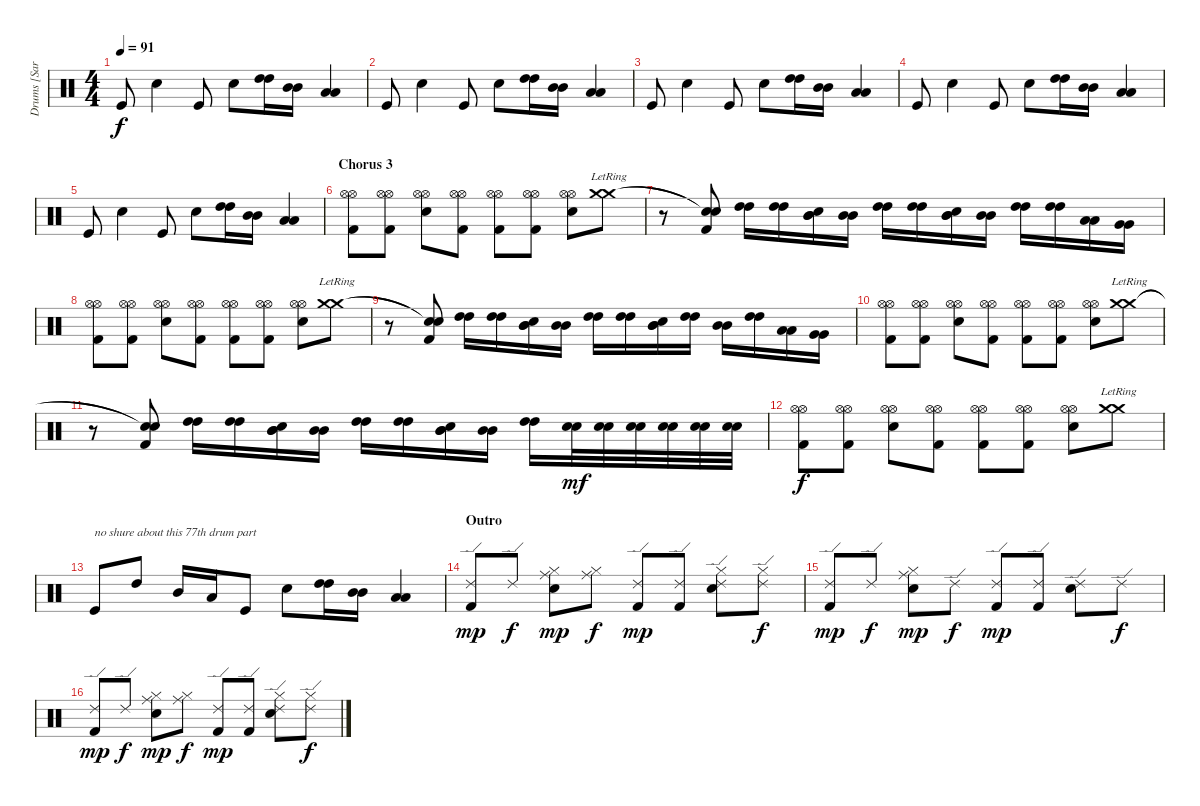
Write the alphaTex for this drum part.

\track ("Drums [Sara Lee Lucas]" "Drums [Sar") {instrument percussion}
\staff {score}
\articulation defaults
\ts (4 4)
\tempo 91
\clef neutral
\ks c "Kick (hit)".8{dy f} "Snare (hit) 2".4 "Kick (hit)".8 "Snare (hit) 2".8
("High Tom (hit)" "High Tom (hit)").16 ("Mid Tom (hit)" "Mid Tom (hit)").16 ("Low Tom (hit)" "Low Tom (hit)").4 |
"Kick (hit)".8 "Snare (hit) 2".4 "Kick (hit)".8 "Snare (hit) 2".8 ("High Tom (hit)" "High Tom (hit)").16 ("Mid Tom (hit)" "Mid Tom (hit)").16 ("Low Tom (hit)" "Low Tom (hit)").4 |
"Kick (hit)".8 "Snare (hit) 2".4 "Kick (hit)".8 "Snare (hit) 2".8 ("High Tom (hit)" "High Tom (hit)").16 ("Mid Tom (hit)" "Mid Tom (hit)").16 ("Low Tom (hit)" "Low Tom (hit)").4 |
"Kick (hit)".8 "Snare (hit) 2".4 "Kick (hit)".8 "Snare (hit) 2".8 ("High Tom (hit)" "High Tom (hit)").16 ("Mid Tom (hit)" "Mid Tom (hit)").16 ("Low Tom (hit)" "Low Tom (hit)").4 |
"Kick (hit)".8 "Snare (hit) 2".4 "Kick (hit)".8 "Snare (hit) 2".8 ("High Tom (hit)" "High Tom (hit)").16 ("Mid Tom (hit)" "Mid Tom (hit)").16 ("Low Tom (hit)" "Low Tom (hit)").4 |
\section ("" "Chorus 3")
("Hi-Hat (open)" "Hi-Hat (open)" "Kick (hit) 2").8 ("Hi-Hat (open)" "Hi-Hat (open)" "Kick (hit) 2").8 ("Hi-Hat (open)" "Hi-Hat (open)" "Snare (hit) 2").8 ("Hi-Hat (open)" "Hi-Hat (open)" "Kick (hit) 2").8 ("Hi-Hat (open)" "Hi-Hat (open)" "Kick (hit) 2").8 ("Hi-Hat (open)" "Hi-Hat (open)" "Kick (hit) 2").8 ("Hi-Hat (open)" "Hi-Hat (open)" "Snare (hit) 2").8 ("Crash medium (hit)"{lr} "Crash medium (hit)"{lr}).8 |
r.8 ("Snare (hit)"{t} "Snare (hit)"{t} "Kick (hit) 2").8 ("High Tom (hit)" "High Tom (hit)").16 ("High Tom (hit)" "High Tom (hit)").16 ("Mid Tom (hit)" "Mid Tom (hit)" "Snare (hit) 2").16 ("Mid Tom (hit)" "Mid Tom (hit)").16 ("High Tom (hit)" "High Tom (hit)").16 ("High Tom (hit)" "High Tom (hit)").16 ("Mid Tom (hit)" "Mid Tom (hit)" "Snare (hit) 2").16 ("Mid Tom (hit)" "Mid Tom (hit)").16 ("High Tom (hit)" "High Tom (hit)").16 ("High Tom (hit)" "High Tom (hit)").16 ("Low Tom (hit)" "Low Tom (hit)").16 ("Very Low Tom (hit)" "Very Low Tom (hit)").16 |
("Hi-Hat (open)" "Hi-Hat (open)" "Kick (hit) 2").8 ("Hi-Hat (open)" "Hi-Hat (open)" "Kick (hit) 2").8 ("Hi-Hat (open)" "Hi-Hat (open)" "Snare (hit) 2").8 ("Hi-Hat (open)" "Hi-Hat (open)" "Kick (hit) 2").8 ("Hi-Hat (open)" "Hi-Hat (open)" "Kick (hit) 2").8 ("Hi-Hat (open)" "Hi-Hat (open)" "Kick (hit) 2").8 ("Hi-Hat (open)" "Hi-Hat (open)" "Snare (hit) 2").8 ("Crash medium (hit)"{lr} "Crash medium (hit)"{lr}).8 |
r.8 ("Snare (hit)"{t} "Snare (hit)"{t} "Kick (hit) 2").8 ("High Tom (hit)" "High Tom (hit)").16 ("High Tom (hit)" "High Tom (hit)").16 ("Mid Tom (hit)" "Mid Tom (hit)" "Snare (hit) 2").16 ("Mid Tom (hit)" "Mid Tom (hit)").16 ("High Tom (hit)" "High Tom (hit)").16 ("High Tom (hit)" "High Tom (hit)").16 ("Mid Tom (hit)" "Mid Tom (hit)" "Snare (hit) 2").16 ("High Tom (hit)" "High Tom (hit)").16 ("Mid Tom (hit)" "Mid Tom (hit)").16 ("High Tom (hit)" "High Tom (hit)").16 ("Low Tom (hit)" "Low Tom (hit)").16 ("Very Low Tom (hit)" "Very Low Tom (hit)").16 |
("Hi-Hat (open)" "Hi-Hat (open)" "Kick (hit) 2").8 ("Hi-Hat (open)" "Hi-Hat (open)" "Kick (hit) 2").8 ("Hi-Hat (open)" "Hi-Hat (open)" "Snare (hit) 2").8 ("Hi-Hat (open)" "Hi-Hat (open)" "Kick (hit) 2").8 ("Hi-Hat (open)" "Hi-Hat (open)" "Kick (hit) 2").8 ("Hi-Hat (open)" "Hi-Hat (open)" "Kick (hit) 2").8 ("Hi-Hat (open)" "Hi-Hat (open)" "Snare (hit) 2").8 ("Crash medium (hit)"{lr} "Crash medium (hit)"{lr}).8 |
r.8 ("Snare (hit)"{t} "Snare (hit)"{t} "Kick (hit) 2").8 ("High Tom (hit)" "High Tom (hit)").16 ("High Tom (hit)" "High Tom (hit)").16 ("Mid Tom (hit)" "Mid Tom (hit)" "Snare (hit) 2").16 ("Mid Tom (hit)" "Mid Tom (hit)").16 ("High Tom (hit)" "High Tom (hit)").16 ("High Tom (hit)" "High Tom (hit)").16 ("Mid Tom (hit)" "Mid Tom (hit)" "Snare (hit) 2").16 ("Mid Tom (hit)" "Mid Tom (hit)").16 ("High Tom (hit)" "High Tom (hit)").16 ("Electric Snare (hit)" "Electric Snare (hit)").32{dy mf} ("Electric Snare (hit)" "Electric Snare (hit)").32 ("Electric Snare (hit)" "Electric Snare (hit)").32 ("Electric Snare (hit)" "Electric Snare (hit)").32 ("Electric Snare (hit)" "Electric Snare (hit)").32 ("Electric Snare (hit)" "Electric Snare (hit)").32 |
("Hi-Hat (open)" "Hi-Hat (open)" "Kick (hit) 2").8{dy f} ("Hi-Hat (open)" "Hi-Hat (open)" "Kick (hit) 2").8 ("Hi-Hat (open)" "Hi-Hat (open)" "Snare (hit) 2").8 ("Hi-Hat (open)" "Hi-Hat (open)" "Kick (hit) 2").8 ("Hi-Hat (open)" "Hi-Hat (open)" "Kick (hit) 2").8 ("Hi-Hat (open)" "Hi-Hat (open)" "Kick (hit) 2").8 ("Hi-Hat (open)" "Hi-Hat (open)" "Snare (hit) 2").8 ("Crash medium (hit)"{lr} "Crash medium (hit)"{lr}).8 |
"Kick (hit)".8{txt "no shure about this 77th drum part"} "High Tom (hit)".8 "Mid Tom (hit)".16 "Low Tom (hit)".16 "Kick (hit)".8 "Snare (hit) 2".8 ("High Tom (hit)" "High Tom (hit)").16 ("Mid Tom (hit)" "Mid Tom (hit)").16 ("Low Tom (hit)" "Low Tom (hit)").4 |
\section ("" "Outro")
("Ride (edge) 2" "Kick (hit) 2").8{dy mp} "Ride (edge) 2".8{dy f} ("Ride (middle)" "Hi-Hat (closed)" "Snare (hit) 2").8{dy mp} ("Ride (middle)" "Hi-Hat (closed)").8{dy f} ("Ride (edge) 2" "Kick (hit) 2").8{dy mp} ("Ride (edge) 2" "Kick (hit) 2").8 ("Ride (edge) 2" "Hi-Hat (closed)" "Snare (hit) 2").8 ("Ride (edge) 2" "Hi-Hat (closed)").8{dy f} |
("Ride (edge) 2" "Kick (hit) 2").8{dy mp} "Ride (edge) 2".8{dy f} ("Ride (middle)" "Hi-Hat (closed)" "Snare (hit) 2").8{dy mp} "Ride (edge) 2".8{dy f} ("Ride (edge) 2" "Kick (hit) 2").8{dy mp} ("Ride (edge) 2" "Kick (hit) 2").8 ("Ride (edge) 2" "Snare (hit) 2").8 "Ride (edge) 2".8{dy f} |
("Ride (edge) 2" "Kick (hit) 2").8{dy mp} "Ride (edge) 2".8{dy f} ("Ride (middle)" "Hi-Hat (closed)" "Snare (hit) 2").8{dy mp} ("Ride (middle)" "Hi-Hat (closed)").8{dy f} ("Ride (edge) 2" "Kick (hit) 2").8{dy mp} ("Ride (edge) 2" "Kick (hit) 2").8 ("Ride (edge) 2" "Hi-Hat (closed)" "Snare (hit) 2").8 ("Ride (edge) 2" "Hi-Hat (closed)").8{dy f}
